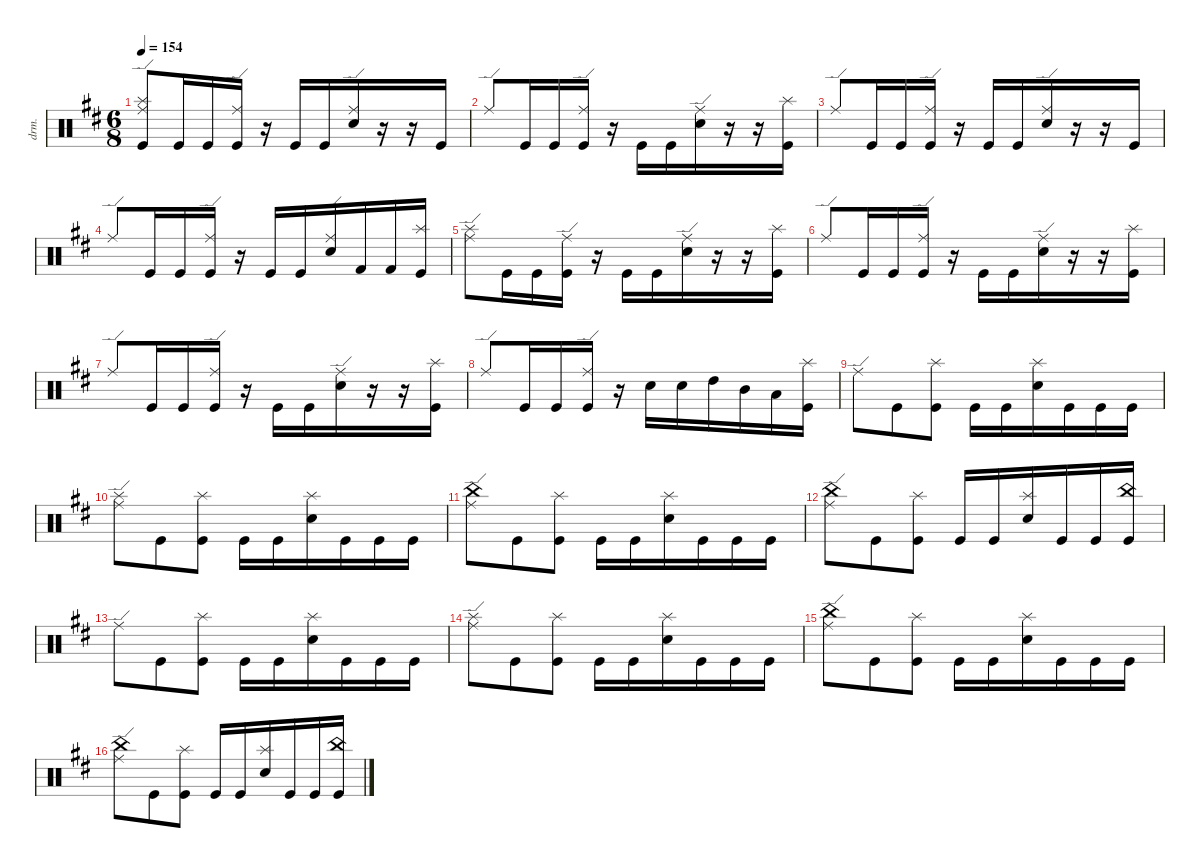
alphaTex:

\defaultSystemsLayout 4
\hideDynamics
\bracketExtendMode nobrackets
\otherSystemsTrackNameOrientation horizontal
\track ("Drumkit" "drm.") {instrument percussion}
\staff {score}
\articulation defaults
\ts (6 8)
\beaming (8 3 3)
\tempo 154
\clef neutral
\ks bminor
("Kick (hit)"{acc forcenatural} "Ride (edge)"{acc forcenatural} "Splash (hit)"{acc forcenatural}).8{dy mf beam Up} "Kick (hit)"{acc forcenatural}.16{beam Up} "Kick (hit)"{acc forcenatural}.16{beam Up} ("Kick (hit)"{acc forcenatural} "Ride (edge)"{acc forcenatural}).16{beam Up} r.16{beam Down} "Kick (hit)"{acc forcenatural}.16{beam Up} "Kick (hit)"{acc forcenatural}.16{beam Up} ("Snare (hit) 2"{acc forcenatural} "Ride (edge)"{acc forcenatural}).16{beam Up} r.16{beam Up} r.16{beam Up} "Kick (hit)"{acc forcenatural}.16{beam Up} |
"Ride (edge)"{acc forcenatural}.8{beam Up} "Kick (hit)"{acc forcenatural}.16{beam Up} "Kick (hit)"{acc forcenatural}.16{beam Up} ("Kick (hit)"{acc forcenatural} "Ride (edge)"{acc forcenatural}).16{beam Up} r.16{beam Up} "Kick (hit)"{acc forcenatural}.16{beam Down} "Kick (hit)"{acc forcenatural}.16{beam Down} ("Snare (hit) 2"{acc forcenatural} "Ride (edge)"{acc forcenatural}).16{beam Down} r.16{beam Down} r.16{beam Down} ("Kick (hit)"{acc forcenatural} "Splash (hit)"{acc forcenatural}).16{beam Down} |
"Ride (edge)"{acc forcenatural}.8{beam Up} "Kick (hit)"{acc forcenatural}.16{beam Up} "Kick (hit)"{acc forcenatural}.16{beam Up} ("Kick (hit)"{acc forcenatural} "Ride (edge)"{acc forcenatural}).16{beam Up} r.16{beam Up} "Kick (hit)"{acc forcenatural}.16{beam Up} "Kick (hit)"{acc forcenatural}.16{beam Up} ("Snare (hit) 2"{acc forcenatural} "Ride (edge)"{acc forcenatural}).16{beam Up} r.16{beam Up} r.16{beam Up} "Kick (hit)"{acc forcenatural}.16{beam Up} |
"Ride (edge)"{acc forcenatural}.8{beam Up} "Kick (hit)"{acc forcenatural}.16{beam Up} "Kick (hit)"{acc forcenatural}.16{beam Up} ("Kick (hit)"{acc forcenatural} "Ride (edge)"{acc forcenatural}).16{beam Up} r.16{beam Up} "Kick (hit)"{acc forcenatural}.16{beam Up} "Kick (hit)"{acc forcenatural}.16{beam Up} ("Snare (hit) 2"{acc forcenatural} "Ride (edge)"{acc forcenatural}).16{beam Up} "Kick (hit) 2"{acc forcenatural}.16{beam Up} "Kick (hit) 2"{acc forcenatural}.16{beam Up} ("Kick (hit)"{acc forcenatural} "Splash (hit)"{acc forcenatural}).16{beam Up} |
("Ride (edge)"{acc forcenatural} "Splash (hit)"{acc forcenatural}).8{beam Down} "Kick (hit)"{acc forcenatural}.16{beam Down} "Kick (hit)"{acc forcenatural}.16{beam Down} ("Kick (hit)"{acc forcenatural} "Ride (edge)"{acc forcenatural}).16{beam Down} r.16{beam Up} "Kick (hit)"{acc forcenatural}.16{beam Down} "Kick (hit)"{acc forcenatural}.16{beam Down} ("Snare (hit) 2"{acc forcenatural} "Ride (edge)"{acc forcenatural}).16{beam Down} r.16{beam Down} r.16{beam Down} ("Kick (hit)"{acc forcenatural} "Splash (hit)"{acc forcenatural}).16{beam Down} |
"Ride (edge)"{acc forcenatural}.8{beam Up} "Kick (hit)"{acc forcenatural}.16{beam Up} "Kick (hit)"{acc forcenatural}.16{beam Up} ("Kick (hit)"{acc forcenatural} "Ride (edge)"{acc forcenatural}).16{beam Up} r.16{beam Up} "Kick (hit)"{acc forcenatural}.16{beam Down} "Kick (hit)"{acc forcenatural}.16{beam Down} ("Snare (hit) 2"{acc forcenatural} "Ride (edge)"{acc forcenatural}).16{beam Down} r.16{beam Down} r.16{beam Down} ("Kick (hit)"{acc forcenatural} "Splash (hit)"{acc forcenatural}).16{beam Down} |
"Ride (edge)"{acc forcenatural}.8{beam Up} "Kick (hit)"{acc forcenatural}.16{beam Up} "Kick (hit)"{acc forcenatural}.16{beam Up} ("Kick (hit)"{acc forcenatural} "Ride (edge)"{acc forcenatural}).16{beam Up} r.16{beam Up} "Kick (hit)"{acc forcenatural}.16{beam Down} "Kick (hit)"{acc forcenatural}.16{beam Down} ("Snare (hit) 2"{acc forcenatural} "Ride (edge)"{acc forcenatural}).16{beam Down} r.16{beam Down} r.16{beam Down} ("Kick (hit)"{acc forcenatural} "Splash (hit)"{acc forcenatural}).16{beam Down} |
"Ride (edge)"{acc forcenatural}.8{beam Up} "Kick (hit)"{acc forcenatural}.16{beam Up} "Kick (hit)"{acc forcenatural}.16{beam Up} ("Kick (hit)"{acc forcenatural} "Ride (edge)"{acc forcenatural}).16{beam Up} r.16{beam Up} "Snare (hit) 2"{acc forcenatural}.16{beam Down} "Snare (hit) 2"{acc forcenatural}.16{beam Down} "High Tom (hit)"{acc forcenatural}.16{beam Down} "Mid Tom (hit)"{acc forcenatural}.16{beam Down} "Low Tom (hit)"{acc forcenatural}.16{beam Down} ("Kick (hit)"{acc forcenatural} "Splash (hit)"{acc forcenatural}).16{beam Down} |
"Ride (edge)"{acc forcenatural}.8{beam Down} "Kick (hit)"{acc forcenatural}.8{beam Down} ("Kick (hit)"{acc forcenatural} "Splash (hit)"{acc forcenatural}).8{beam Down} "Kick (hit)"{acc forcenatural}.16{beam Down} "Kick (hit)"{acc forcenatural}.16{beam Down} ("Snare (hit) 2"{acc forcenatural} "Splash (hit)"{acc forcenatural}).16{beam Down} "Kick (hit)"{acc forcenatural}.16{beam Down} "Kick (hit)"{acc forcenatural}.16{beam Down} "Kick (hit)"{acc forcenatural}.16{beam Down} |
("Ride (edge)"{acc forcenatural} "Splash (hit)"{acc forcenatural}).8{beam Down} "Kick (hit)"{acc forcenatural}.8{beam Down} ("Kick (hit)"{acc forcenatural} "Splash (hit)"{acc forcenatural}).8{beam Down} "Kick (hit)"{acc forcenatural}.16{beam Down} "Kick (hit)"{acc forcenatural}.16{beam Down} ("Snare (hit) 2"{acc forcenatural} "Splash (hit)"{acc forcenatural}).16{beam Down} "Kick (hit)"{acc forcenatural}.16{beam Down} "Kick (hit)"{acc forcenatural}.16{beam Down} "Kick (hit)"{acc forcenatural}.16{beam Down} |
("Ride (edge)"{acc forcenatural} "China (hit)"{acc forcenatural}).8{beam Down} "Kick (hit)"{acc forcenatural}.8{beam Down} ("Kick (hit)"{acc forcenatural} "Splash (hit)"{acc forcenatural}).8{beam Down} "Kick (hit)"{acc forcenatural}.16{beam Down} "Kick (hit)"{acc forcenatural}.16{beam Down} ("Snare (hit) 2"{acc forcenatural} "Splash (hit)"{acc forcenatural}).16{beam Down} "Kick (hit)"{acc forcenatural}.16{beam Down} "Kick (hit)"{acc forcenatural}.16{beam Down} "Kick (hit)"{acc forcenatural}.16{beam Down} |
("Ride (edge)"{acc forcenatural} "China (hit)"{acc forcenatural}).8{beam Down} "Kick (hit)"{acc forcenatural}.8{beam Down} ("Kick (hit)"{acc forcenatural} "Splash (hit)"{acc forcenatural}).8{beam Down} "Kick (hit)"{acc forcenatural}.16{beam Up} "Kick (hit)"{acc forcenatural}.16{beam Up} ("Snare (hit) 2"{acc forcenatural} "Splash (hit)"{acc forcenatural}).16{beam Up} "Kick (hit)"{acc forcenatural}.16{beam Up} "Kick (hit)"{acc forcenatural}.16{beam Up} ("Kick (hit)"{acc forcenatural} "China (hit)"{acc forcenatural}).16{beam Up} |
"Ride (edge)"{acc forcenatural}.8{beam Down} "Kick (hit)"{acc forcenatural}.8{beam Down} ("Kick (hit)"{acc forcenatural} "Splash (hit)"{acc forcenatural}).8{beam Down} "Kick (hit)"{acc forcenatural}.16{beam Down} "Kick (hit)"{acc forcenatural}.16{beam Down} ("Snare (hit) 2"{acc forcenatural} "Splash (hit)"{acc forcenatural}).16{beam Down} "Kick (hit)"{acc forcenatural}.16{beam Down} "Kick (hit)"{acc forcenatural}.16{beam Down} "Kick (hit)"{acc forcenatural}.16{beam Down} |
("Ride (edge)"{acc forcenatural} "Splash (hit)"{acc forcenatural}).8{beam Down} "Kick (hit)"{acc forcenatural}.8{beam Down} ("Kick (hit)"{acc forcenatural} "Splash (hit)"{acc forcenatural}).8{beam Down} "Kick (hit)"{acc forcenatural}.16{beam Down} "Kick (hit)"{acc forcenatural}.16{beam Down} ("Snare (hit) 2"{acc forcenatural} "Splash (hit)"{acc forcenatural}).16{beam Down} "Kick (hit)"{acc forcenatural}.16{beam Down} "Kick (hit)"{acc forcenatural}.16{beam Down} "Kick (hit)"{acc forcenatural}.16{beam Down} |
("Ride (edge)"{acc forcenatural} "China (hit)"{acc forcenatural}).8{beam Down} "Kick (hit)"{acc forcenatural}.8{beam Down} ("Kick (hit)"{acc forcenatural} "Splash (hit)"{acc forcenatural}).8{beam Down} "Kick (hit)"{acc forcenatural}.16{beam Down} "Kick (hit)"{acc forcenatural}.16{beam Down} ("Snare (hit) 2"{acc forcenatural} "Splash (hit)"{acc forcenatural}).16{beam Down} "Kick (hit)"{acc forcenatural}.16{beam Down} "Kick (hit)"{acc forcenatural}.16{beam Down} "Kick (hit)"{acc forcenatural}.16{beam Down} |
("Ride (edge)"{acc forcenatural} "China (hit)"{acc forcenatural}).8{beam Down} "Kick (hit)"{acc forcenatural}.8{beam Down} ("Kick (hit)"{acc forcenatural} "Splash (hit)"{acc forcenatural}).8{beam Down} "Kick (hit)"{acc forcenatural}.16{beam Up} "Kick (hit)"{acc forcenatural}.16{beam Up} ("Snare (hit) 2"{acc forcenatural} "Splash (hit)"{acc forcenatural}).16{beam Up} "Kick (hit)"{acc forcenatural}.16{beam Up} "Kick (hit)"{acc forcenatural}.16{beam Up} ("Kick (hit)"{acc forcenatural} "China (hit)"{acc forcenatural}).16{beam Up}
